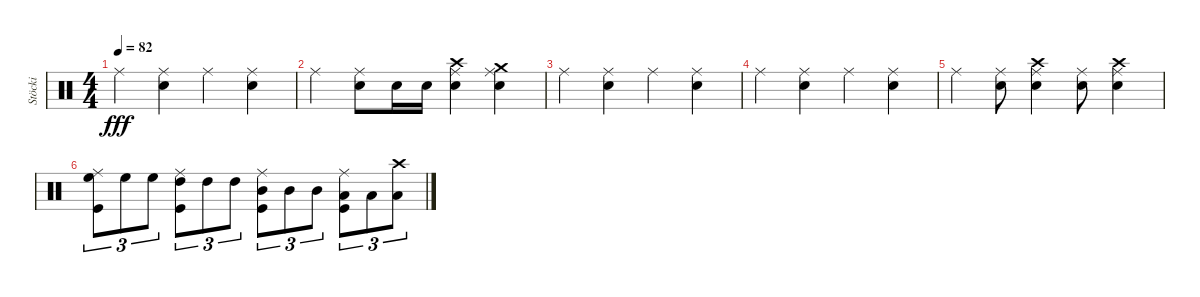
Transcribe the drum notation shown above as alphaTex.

\track ("Stöcki" "Stöcki") {instrument percussion}
\staff {score}
\articulation defaults
\ts (4 4)
\tempo 82
\clef neutral
\ks c "Ride (middle)".4{dy fff}
("Ride (middle)" "Snare (hit) 2").4 "Ride (middle)".4 ("Ride (middle)" "Snare (hit) 2").4 |
"Ride (middle)".4 ("Ride (middle)" "Snare (hit) 2").8 "Snare (hit) 2".16 "Snare (hit) 2".16 ("Ride (middle)" "Snare (hit) 2" "Crash high (hit)").4 ("Ride (middle)" "Snare (hit) 2" "Crash medium (hit)").4 |
"Ride (middle)".4 ("Ride (middle)" "Snare (hit) 2").4 "Ride (middle)".4 ("Ride (middle)" "Snare (hit) 2").4 |
"Ride (middle)".4 ("Ride (middle)" "Snare (hit) 2").4 "Ride (middle)".4 ("Ride (middle)" "Snare (hit) 2").4 |
"Ride (middle)".4 ("Ride (middle)" "Snare (hit) 2").8 ("Ride (middle)" "Snare (hit) 2" "Crash high (hit)").4 ("Ride (middle)" "Snare (hit) 2").8 ("Ride (middle)" "Snare (hit) 2" "Crash high (hit)").4 |
("High Floor Tom (hit)" "Kick (hit)" "Ride (middle)").8{tu (3 2)} "High Floor Tom (hit)".8{tu (3 2)} "High Floor Tom (hit)".8{tu (3 2)} ("High Tom (hit)" "Kick (hit)" "Ride (middle)").8{tu (3 2)} "High Tom (hit)".8{tu (3 2)} "High Tom (hit)".8{tu (3 2)} ("Mid Tom (hit)" "Kick (hit)" "Ride (middle)").8{tu (3 2)} "Mid Tom (hit)".8{tu (3 2)} "Mid Tom (hit)".8{tu (3 2)} ("Low Tom (hit)" "Kick (hit)" "Ride (middle)").8{tu (3 2)} "Low Tom (hit)".8{tu (3 2)} ("Low Tom (hit)" "Crash high (hit)").8{tu (3 2)}
